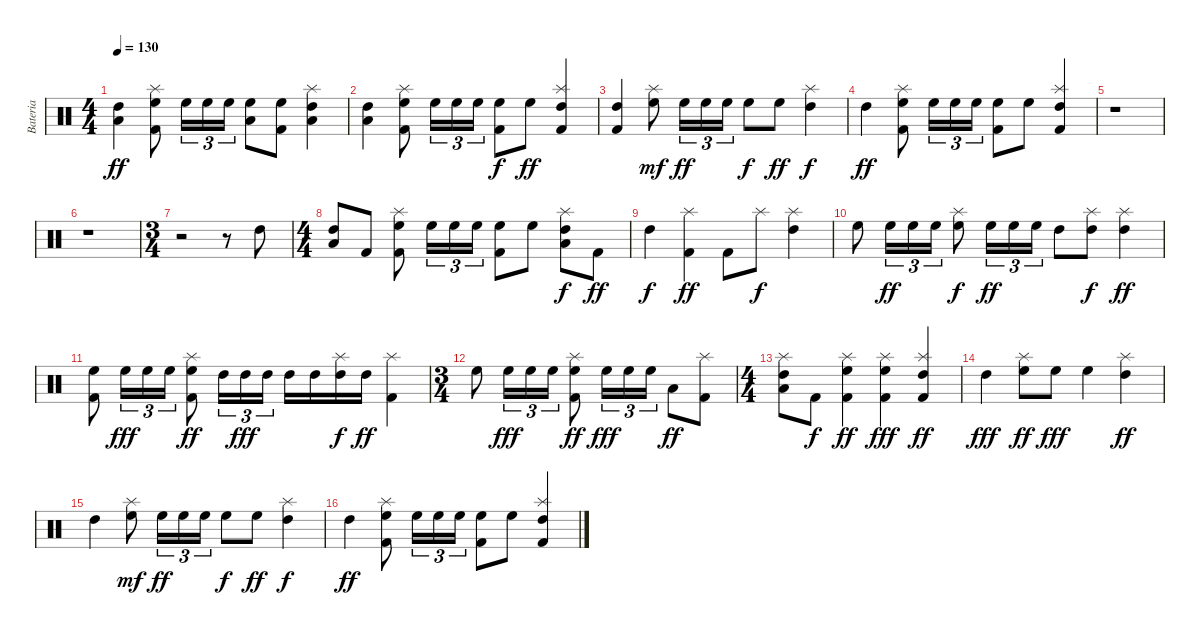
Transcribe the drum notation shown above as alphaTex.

\track ("Bateria" "Bateria") {instrument percussion}
\staff {score}
\articulation defaults
\ts (4 4)
\tempo 130
\clef neutral
\ks c
("High Tom (hit)" "Low Floor Tom (hit)").4{dy ff} ("High Floor Tom (hit)" "Splash (hit)" "Kick (hit) 2").8 "High Floor Tom (hit)".16{tu (3 2)} "High Floor Tom (hit)".16{tu (3 2)} "High Floor Tom (hit)".16{tu (3 2)} ("High Floor Tom (hit)" "Low Floor Tom (hit)").8 ("High Floor Tom (hit)" "Kick (hit) 2").8 ("High Tom (hit)" "Splash (hit)" "Low Floor Tom (hit)").4 |
("High Tom (hit)" "Low Floor Tom (hit)").4 ("High Floor Tom (hit)" "Splash (hit)" "Kick (hit) 2").8 "High Floor Tom (hit)".16{tu (3 2)} "High Floor Tom (hit)".16{tu (3 2)} "High Floor Tom (hit)".16{tu (3 2)} ("High Floor Tom (hit)" "Kick (hit) 2").8{dy f} "High Floor Tom (hit)".8{dy ff} ("High Tom (hit)" "Splash (hit)" "Kick (hit) 2").4 |
("High Tom (hit)" "Kick (hit) 2").4 ("High Floor Tom (hit)" "Splash (hit)").8{dy mf} "High Floor Tom (hit)".16{tu (3 2) dy ff} "High Floor Tom (hit)".16{tu (3 2)} "High Floor Tom (hit)".16{tu (3 2)} "High Floor Tom (hit)".8{dy f} "High Floor Tom (hit)".8{dy ff} ("High Tom (hit)" "Splash (hit)").4{dy f} |
"High Tom (hit)".4{dy ff} ("High Floor Tom (hit)" "Splash (hit)" "Kick (hit) 2").8 "High Floor Tom (hit)".16{tu (3 2)} "High Floor Tom (hit)".16{tu (3 2)} "High Floor Tom (hit)".16{tu (3 2)} ("High Floor Tom (hit)" "Kick (hit) 2").8 "High Floor Tom (hit)".8 ("High Tom (hit)" "Splash (hit)" "Kick (hit) 2").4 |
r.1 |
r.1 |
\ts (3 4)
r.2 r.8 "High Tom (hit)".8 |
\ts (4 4)
("High Tom (hit)" "Low Floor Tom (hit)").8 "Kick (hit) 2".8 ("High Floor Tom (hit)" "Splash (hit)" "Kick (hit) 2").8 "High Floor Tom (hit)".16{tu (3 2)} "High Floor Tom (hit)".16{tu (3 2)} "High Floor Tom (hit)".16{tu (3 2)} ("High Floor Tom (hit)" "Kick (hit) 2").8 "High Floor Tom (hit)".8 ("High Tom (hit)" "Splash (hit)" "Low Floor Tom (hit)").8{dy f} "Kick (hit) 2".8{dy ff} |
"High Tom (hit)".4{dy f} ("Kick (hit) 2" "Splash (hit)").4{dy ff} "Kick (hit) 2".8 "Splash (hit)".8{dy f} ("High Tom (hit)" "Splash (hit)").4 |
"High Floor Tom (hit)".8 "High Floor Tom (hit)".16{tu (3 2) dy ff} "High Floor Tom (hit)".16{tu (3 2)} "High Floor Tom (hit)".16{tu (3 2)} ("Splash (hit)" "High Floor Tom (hit)").8{dy f} "High Floor Tom (hit)".16{tu (3 2) dy ff} "High Floor Tom (hit)".16{tu (3 2)} "High Floor Tom (hit)".16{tu (3 2)} "High Tom (hit)".8 ("High Tom (hit)" "Splash (hit)").8{dy f} ("High Tom (hit)" "Splash (hit)").4{dy ff} |
("Kick (hit) 2" "High Floor Tom (hit)").8 "High Floor Tom (hit)".16{tu (3 2) dy fff} "High Floor Tom (hit)".16{tu (3 2)} "High Floor Tom (hit)".16{tu (3 2)} ("Kick (hit) 2" "High Floor Tom (hit)" "Splash (hit)").8{dy ff} "High Tom (hit)".16{tu (3 2)} "High Tom (hit)".16{tu (3 2) dy fff} "High Tom (hit)".16{tu (3 2)} "High Tom (hit)".16 "High Tom (hit)".16 ("High Tom (hit)" "Splash (hit)").16{dy f} "High Tom (hit)".16{dy ff} ("Kick (hit) 2" "Splash (hit)").4 |
\ts (3 4)
"High Floor Tom (hit)".8 "High Floor Tom (hit)".16{tu (3 2) dy fff} "High Floor Tom (hit)".16{tu (3 2)} "High Floor Tom (hit)".16{tu (3 2)} ("Kick (hit) 2" "High Floor Tom (hit)" "Splash (hit)").8{dy ff} "High Floor Tom (hit)".16{tu (3 2) dy fff} "High Floor Tom (hit)".16{tu (3 2)} "High Floor Tom (hit)".16{tu (3 2)} "Low Floor Tom (hit)".8{dy ff} ("Kick (hit) 2" "Splash (hit)").8 |
\ts (4 4)
("Low Floor Tom (hit)" "High Tom (hit)" "Splash (hit)").8 "Kick (hit) 2".8{dy f} ("Kick (hit) 2" "High Floor Tom (hit)" "Splash (hit)").4{dy ff} ("Kick (hit) 2" "Splash (hit)" "High Floor Tom (hit)").4{dy fff} ("Kick (hit) 2" "High Tom (hit)" "Splash (hit)").4{dy ff} |
"High Tom (hit)".4{dy fff} ("Splash (hit)" "High Floor Tom (hit)").8{dy ff} "High Floor Tom (hit)".8{dy fff} "High Floor Tom (hit)".4 ("Splash (hit)" "High Tom (hit)").4{dy ff} |
"High Tom (hit)".4 ("High Floor Tom (hit)" "Splash (hit)").8{dy mf} "High Floor Tom (hit)".16{tu (3 2) dy ff} "High Floor Tom (hit)".16{tu (3 2)} "High Floor Tom (hit)".16{tu (3 2)} "High Floor Tom (hit)".8{dy f} "High Floor Tom (hit)".8{dy ff} ("High Tom (hit)" "Splash (hit)").4{dy f} |
"High Tom (hit)".4{dy ff} ("High Floor Tom (hit)" "Splash (hit)" "Kick (hit) 2").8 "High Floor Tom (hit)".16{tu (3 2)} "High Floor Tom (hit)".16{tu (3 2)} "High Floor Tom (hit)".16{tu (3 2)} ("High Floor Tom (hit)" "Kick (hit) 2").8 "High Floor Tom (hit)".8 ("High Tom (hit)" "Splash (hit)" "Kick (hit) 2").4
